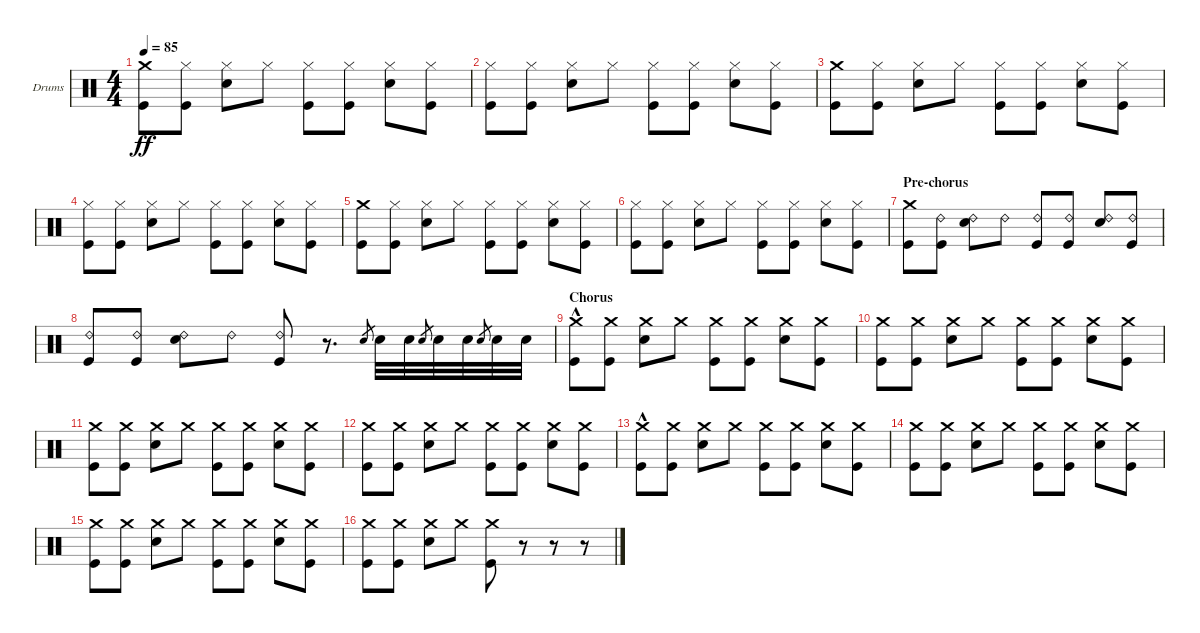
\bracketExtendMode groupsimilarinstruments
\firstSystemTrackNameOrientation horizontal
\otherSystemsTrackNameOrientation horizontal
\track ("Drumkit" "Drums") {instrument percussion}
\staff {score}
\articulation defaults
\ts (4 4)
\tempo 85
\clef neutral
\ks c
("Kick (hit)" "Crash medium (hit)").8{dy ff} ("Kick (hit)" "Hi-Hat (closed)").8 ("Snare (hit) 2" "Hi-Hat (closed)").8 "Hi-Hat (closed)".8 ("Kick (hit)" "Hi-Hat (closed)").8 ("Kick (hit)" "Hi-Hat (closed)").8 ("Snare (hit) 2" "Hi-Hat (closed)").8 ("Kick (hit)" "Hi-Hat (closed)").8 |
("Kick (hit)" "Hi-Hat (closed)").8 ("Kick (hit)" "Hi-Hat (closed)").8 ("Snare (hit) 2" "Hi-Hat (closed)").8 "Hi-Hat (closed)".8 ("Kick (hit)" "Hi-Hat (closed)").8 ("Kick (hit)" "Hi-Hat (closed)").8 ("Snare (hit) 2" "Hi-Hat (closed)").8 ("Kick (hit)" "Hi-Hat (closed)").8 |
("Kick (hit)" "Crash medium (hit)").8 ("Kick (hit)" "Hi-Hat (closed)").8 ("Snare (hit) 2" "Hi-Hat (closed)").8 "Hi-Hat (closed)".8 ("Kick (hit)" "Hi-Hat (closed)").8 ("Kick (hit)" "Hi-Hat (closed)").8 ("Snare (hit) 2" "Hi-Hat (closed)").8 ("Kick (hit)" "Hi-Hat (closed)").8 |
("Kick (hit)" "Hi-Hat (closed)").8 ("Kick (hit)" "Hi-Hat (closed)").8 ("Snare (hit) 2" "Hi-Hat (closed)").8 "Hi-Hat (closed)".8 ("Kick (hit)" "Hi-Hat (closed)").8 ("Kick (hit)" "Hi-Hat (closed)").8 ("Snare (hit) 2" "Hi-Hat (closed)").8 ("Kick (hit)" "Hi-Hat (closed)").8 |
("Kick (hit)" "Crash medium (hit)").8 ("Kick (hit)" "Hi-Hat (closed)").8 ("Snare (hit) 2" "Hi-Hat (closed)").8 "Hi-Hat (closed)".8 ("Kick (hit)" "Hi-Hat (closed)").8 ("Kick (hit)" "Hi-Hat (closed)").8 ("Snare (hit) 2" "Hi-Hat (closed)").8 ("Kick (hit)" "Hi-Hat (closed)").8 |
("Kick (hit)" "Hi-Hat (closed)").8 ("Kick (hit)" "Hi-Hat (closed)").8 ("Snare (hit) 2" "Hi-Hat (closed)").8 "Hi-Hat (closed)".8 ("Kick (hit)" "Hi-Hat (closed)").8 ("Kick (hit)" "Hi-Hat (closed)").8 ("Snare (hit) 2" "Hi-Hat (closed)").8 ("Kick (hit)" "Hi-Hat (closed)").8 |
\section ("" "Pre-chorus")
("Kick (hit)" "Crash medium (hit)").8 ("Kick (hit)" "Ride (bell) 2").8 ("Snare (hit) 2" "Ride (bell) 2").8 "Ride (bell) 2".8 ("Kick (hit)" "Ride (bell) 2").8 ("Kick (hit)" "Ride (bell) 2").8 ("Snare (hit) 2" "Ride (bell) 2").8 ("Kick (hit)" "Ride (bell) 2").8 |
("Kick (hit)" "Ride (bell) 2").8 ("Kick (hit)" "Ride (bell) 2").8 ("Snare (hit) 2" "Ride (bell) 2").8 "Ride (bell) 2".8 ("Kick (hit)" "Ride (bell) 2").8 r.8{d} "Snare (hit) 2".8{gr} "Snare (hit) 2".32 "Snare (hit) 2".32 "Snare (hit) 2".8{gr} "Snare (hit) 2".32 "Snare (hit) 2".32 "Snare (hit) 2".8{gr} "Snare (hit) 2".32 "Snare (hit) 2".32 |
\section ("" "Chorus")
("Kick (hit)"{hac} "Crash medium (hit)"{hac}).8 ("Kick (hit)" "Crash medium (hit)").8 ("Snare (hit) 2" "Crash medium (hit)").8 "Crash medium (hit)".8 ("Kick (hit)" "Crash medium (hit)").8 ("Kick (hit)" "Crash medium (hit)").8 ("Snare (hit) 2" "Crash medium (hit)").8 ("Kick (hit)" "Crash medium (hit)").8 |
("Kick (hit)" "Crash medium (hit)").8 ("Kick (hit)" "Crash medium (hit)").8 ("Snare (hit) 2" "Crash medium (hit)").8 "Crash medium (hit)".8 ("Kick (hit)" "Crash medium (hit)").8 ("Kick (hit)" "Crash medium (hit)").8 ("Snare (hit) 2" "Crash medium (hit)").8 ("Kick (hit)" "Crash medium (hit)").8 |
("Kick (hit)" "Crash medium (hit)").8 ("Kick (hit)" "Crash medium (hit)").8 ("Snare (hit) 2" "Crash medium (hit)").8 "Crash medium (hit)".8 ("Kick (hit)" "Crash medium (hit)").8 ("Kick (hit)" "Crash medium (hit)").8 ("Snare (hit) 2" "Crash medium (hit)").8 ("Kick (hit)" "Crash medium (hit)").8 |
("Kick (hit)" "Crash medium (hit)").8 ("Kick (hit)" "Crash medium (hit)").8 ("Snare (hit) 2" "Crash medium (hit)").8 "Crash medium (hit)".8 ("Kick (hit)" "Crash medium (hit)").8 ("Kick (hit)" "Crash medium (hit)").8 ("Snare (hit) 2" "Crash medium (hit)").8 ("Kick (hit)" "Crash medium (hit)").8 |
("Kick (hit)"{hac} "Crash medium (hit)"{hac}).8 ("Kick (hit)" "Crash medium (hit)").8 ("Snare (hit) 2" "Crash medium (hit)").8 "Crash medium (hit)".8 ("Kick (hit)" "Crash medium (hit)").8 ("Kick (hit)" "Crash medium (hit)").8 ("Snare (hit) 2" "Crash medium (hit)").8 ("Kick (hit)" "Crash medium (hit)").8 |
("Kick (hit)" "Crash medium (hit)").8 ("Kick (hit)" "Crash medium (hit)").8 ("Snare (hit) 2" "Crash medium (hit)").8 "Crash medium (hit)".8 ("Kick (hit)" "Crash medium (hit)").8 ("Kick (hit)" "Crash medium (hit)").8 ("Snare (hit) 2" "Crash medium (hit)").8 ("Kick (hit)" "Crash medium (hit)").8 |
("Kick (hit)" "Crash medium (hit)").8 ("Kick (hit)" "Crash medium (hit)").8 ("Snare (hit) 2" "Crash medium (hit)").8 "Crash medium (hit)".8 ("Kick (hit)" "Crash medium (hit)").8 ("Kick (hit)" "Crash medium (hit)").8 ("Snare (hit) 2" "Crash medium (hit)").8 ("Kick (hit)" "Crash medium (hit)").8 |
("Kick (hit)" "Crash medium (hit)").8 ("Kick (hit)" "Crash medium (hit)").8 ("Snare (hit) 2" "Crash medium (hit)").8 "Crash medium (hit)".8 ("Kick (hit)" "Crash medium (hit)").8 r.8 r.8 r.8
